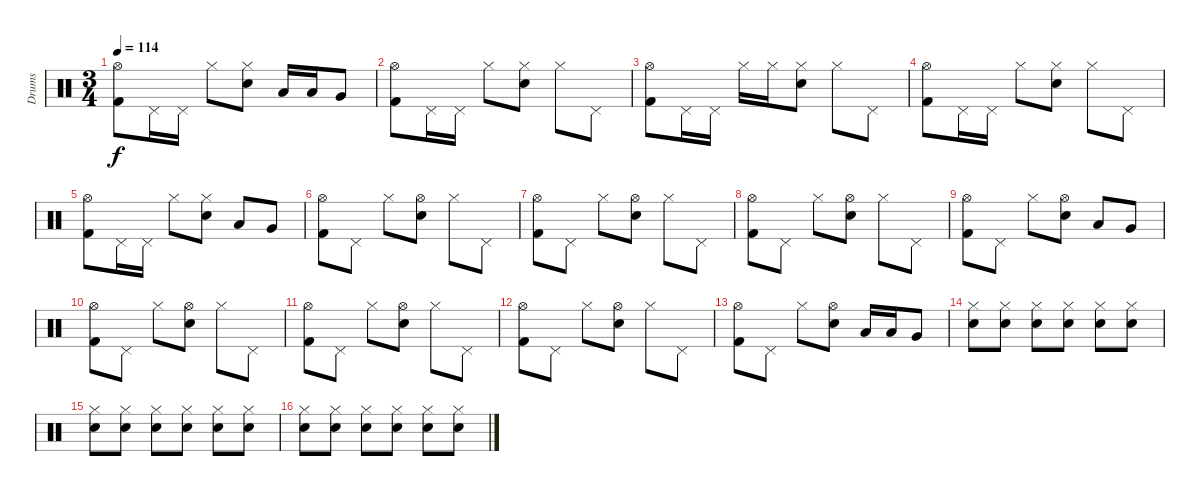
\track ("Drums" "Drums") {instrument percussion}
\staff {score}
\articulation defaults
\ts (3 4)
\tempo 114
\clef neutral
\ks c
("Hi-Hat (open)" "Kick (hit) 2").8{dy f} "Pedal Hi-Hat (hit)".16 "Pedal Hi-Hat (hit)".16 "Hi-Hat (closed)".8 ("Hi-Hat (closed)" "Electric Snare (hit)").8 "Low Tom (hit)".16 "Low Tom (hit)".16 "Very Low Tom (hit)".8 |
("Hi-Hat (open)" "Kick (hit) 2").8 "Pedal Hi-Hat (hit)".16 "Pedal Hi-Hat (hit)".16 "Hi-Hat (closed)".8 ("Hi-Hat (closed)" "Electric Snare (hit)").8 "Hi-Hat (closed)".8 "Pedal Hi-Hat (hit)".8 |
("Hi-Hat (open)" "Kick (hit) 2").8 "Pedal Hi-Hat (hit)".16 "Pedal Hi-Hat (hit)".16 "Hi-Hat (closed)".16 "Hi-Hat (closed)".16 ("Hi-Hat (closed)" "Electric Snare (hit)").8 "Hi-Hat (closed)".8 "Pedal Hi-Hat (hit)".8 |
("Hi-Hat (open)" "Kick (hit) 2").8 "Pedal Hi-Hat (hit)".16 "Pedal Hi-Hat (hit)".16 "Hi-Hat (closed)".8 ("Hi-Hat (closed)" "Electric Snare (hit)").8 "Hi-Hat (closed)".8 "Pedal Hi-Hat (hit)".8 |
("Hi-Hat (open)" "Kick (hit) 2").8 "Pedal Hi-Hat (hit)".16 "Pedal Hi-Hat (hit)".16 "Hi-Hat (closed)".8 ("Hi-Hat (closed)" "Electric Snare (hit)").8 "Low Tom (hit)".8 "Very Low Tom (hit)".8 |
("Hi-Hat (open)" "Kick (hit) 2").8 "Pedal Hi-Hat (hit)".8 "Hi-Hat (closed)".8 ("Hi-Hat (open)" "Electric Snare (hit)").8 "Hi-Hat (closed)".8 "Pedal Hi-Hat (hit)".8 |
("Hi-Hat (open)" "Kick (hit) 2").8 "Pedal Hi-Hat (hit)".8 "Hi-Hat (closed)".8 ("Hi-Hat (open)" "Electric Snare (hit)").8 "Hi-Hat (closed)".8 "Pedal Hi-Hat (hit)".8 |
("Hi-Hat (open)" "Kick (hit) 2").8 "Pedal Hi-Hat (hit)".8 "Hi-Hat (closed)".8 ("Hi-Hat (open)" "Electric Snare (hit)").8 "Hi-Hat (closed)".8 "Pedal Hi-Hat (hit)".8 |
("Hi-Hat (open)" "Kick (hit) 2").8 "Pedal Hi-Hat (hit)".8 "Hi-Hat (closed)".8 ("Hi-Hat (open)" "Electric Snare (hit)").8 "Low Tom (hit)".8 "Very Low Tom (hit)".8 |
("Hi-Hat (open)" "Kick (hit) 2").8 "Pedal Hi-Hat (hit)".8 "Hi-Hat (closed)".8 ("Hi-Hat (open)" "Electric Snare (hit)").8 "Hi-Hat (closed)".8 "Pedal Hi-Hat (hit)".8 |
("Hi-Hat (open)" "Kick (hit) 2").8 "Pedal Hi-Hat (hit)".8 "Hi-Hat (closed)".8 ("Hi-Hat (open)" "Electric Snare (hit)").8 "Hi-Hat (closed)".8 "Pedal Hi-Hat (hit)".8 |
("Hi-Hat (open)" "Kick (hit) 2").8 "Pedal Hi-Hat (hit)".8 "Hi-Hat (closed)".8 ("Hi-Hat (open)" "Electric Snare (hit)").8 "Hi-Hat (closed)".8 "Pedal Hi-Hat (hit)".8 |
("Hi-Hat (open)" "Kick (hit) 2").8 "Pedal Hi-Hat (hit)".8 "Hi-Hat (closed)".8 ("Hi-Hat (open)" "Electric Snare (hit)").8 "Low Tom (hit)".16 "Low Tom (hit)".16 "Very Low Tom (hit)".8 |
("Hi-Hat (closed)" "Electric Snare (hit)").8 ("Hi-Hat (closed)" "Electric Snare (hit)").8 ("Hi-Hat (closed)" "Electric Snare (hit)").8 ("Hi-Hat (closed)" "Electric Snare (hit)").8 ("Hi-Hat (closed)" "Electric Snare (hit)").8 ("Hi-Hat (closed)" "Electric Snare (hit)").8 |
("Hi-Hat (closed)" "Electric Snare (hit)").8 ("Hi-Hat (closed)" "Electric Snare (hit)").8 ("Hi-Hat (closed)" "Electric Snare (hit)").8 ("Hi-Hat (closed)" "Electric Snare (hit)").8 ("Hi-Hat (closed)" "Electric Snare (hit)").8 ("Hi-Hat (closed)" "Electric Snare (hit)").8 |
("Hi-Hat (closed)" "Electric Snare (hit)").8 ("Hi-Hat (closed)" "Electric Snare (hit)").8 ("Hi-Hat (closed)" "Electric Snare (hit)").8 ("Hi-Hat (closed)" "Electric Snare (hit)").8 ("Hi-Hat (closed)" "Electric Snare (hit)").8 ("Hi-Hat (closed)" "Electric Snare (hit)").8
